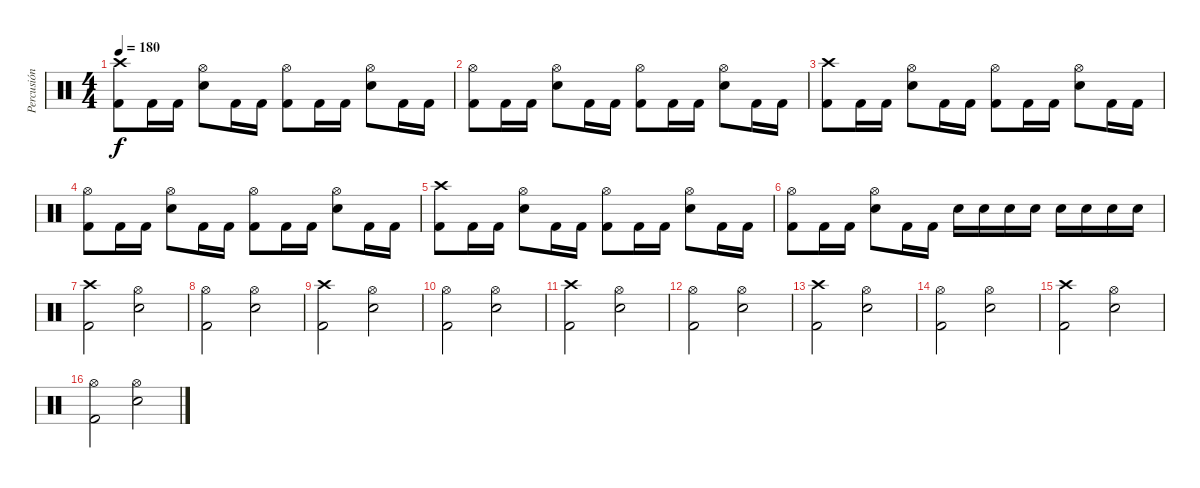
\track ("Percusión" "Percusión") {instrument percussion}
\staff {score}
\articulation defaults
\ts (4 4)
\tempo 180
\clef neutral
\ks c
("Crash high (hit)" "Kick (hit) 2").8{dy f} "Kick (hit) 2".16 "Kick (hit) 2".16 ("Hi-Hat (open)" "Electric Snare (hit)").8 "Kick (hit) 2".16 "Kick (hit) 2".16 ("Hi-Hat (open)" "Kick (hit) 2").8 "Kick (hit) 2".16 "Kick (hit) 2".16 ("Hi-Hat (open)" "Electric Snare (hit)").8 "Kick (hit) 2".16 "Kick (hit) 2".16 |
("Hi-Hat (open)" "Kick (hit) 2").8 "Kick (hit) 2".16 "Kick (hit) 2".16 ("Hi-Hat (open)" "Electric Snare (hit)").8 "Kick (hit) 2".16 "Kick (hit) 2".16 ("Hi-Hat (open)" "Kick (hit) 2").8 "Kick (hit) 2".16 "Kick (hit) 2".16 ("Hi-Hat (open)" "Electric Snare (hit)").8 "Kick (hit) 2".16 "Kick (hit) 2".16 |
("Crash high (hit)" "Kick (hit) 2").8 "Kick (hit) 2".16 "Kick (hit) 2".16 ("Hi-Hat (open)" "Electric Snare (hit)").8 "Kick (hit) 2".16 "Kick (hit) 2".16 ("Hi-Hat (open)" "Kick (hit) 2").8 "Kick (hit) 2".16 "Kick (hit) 2".16 ("Hi-Hat (open)" "Electric Snare (hit)").8 "Kick (hit) 2".16 "Kick (hit) 2".16 |
("Hi-Hat (open)" "Kick (hit) 2").8 "Kick (hit) 2".16 "Kick (hit) 2".16 ("Hi-Hat (open)" "Electric Snare (hit)").8 "Kick (hit) 2".16 "Kick (hit) 2".16 ("Hi-Hat (open)" "Kick (hit) 2").8 "Kick (hit) 2".16 "Kick (hit) 2".16 ("Hi-Hat (open)" "Electric Snare (hit)").8 "Kick (hit) 2".16 "Kick (hit) 2".16 |
("Crash high (hit)" "Kick (hit) 2").8 "Kick (hit) 2".16 "Kick (hit) 2".16 ("Hi-Hat (open)" "Electric Snare (hit)").8 "Kick (hit) 2".16 "Kick (hit) 2".16 ("Hi-Hat (open)" "Kick (hit) 2").8 "Kick (hit) 2".16 "Kick (hit) 2".16 ("Hi-Hat (open)" "Electric Snare (hit)").8 "Kick (hit) 2".16 "Kick (hit) 2".16 |
("Hi-Hat (open)" "Kick (hit) 2").8 "Kick (hit) 2".16 "Kick (hit) 2".16 ("Hi-Hat (open)" "Electric Snare (hit)").8 "Kick (hit) 2".16 "Kick (hit) 2".16 "Electric Snare (hit)".16 "Electric Snare (hit)".16 "Electric Snare (hit)".16 "Electric Snare (hit)".16 "Electric Snare (hit)".16 "Electric Snare (hit)".16 "Electric Snare (hit)".16 "Electric Snare (hit)".16 |
("Crash high (hit)" "Kick (hit) 2").2 ("Hi-Hat (open)" "Electric Snare (hit)").2 |
("Hi-Hat (open)" "Kick (hit) 2").2 ("Hi-Hat (open)" "Electric Snare (hit)").2 |
("Crash high (hit)" "Kick (hit) 2").2 ("Hi-Hat (open)" "Electric Snare (hit)").2 |
("Hi-Hat (open)" "Kick (hit) 2").2 ("Hi-Hat (open)" "Electric Snare (hit)").2 |
("Crash high (hit)" "Kick (hit) 2").2 ("Hi-Hat (open)" "Electric Snare (hit)").2 |
("Hi-Hat (open)" "Kick (hit) 2").2 ("Hi-Hat (open)" "Electric Snare (hit)").2 |
("Crash high (hit)" "Kick (hit) 2").2 ("Hi-Hat (open)" "Electric Snare (hit)").2 |
("Hi-Hat (open)" "Kick (hit) 2").2 ("Hi-Hat (open)" "Electric Snare (hit)").2 |
("Crash high (hit)" "Kick (hit) 2").2 ("Hi-Hat (open)" "Electric Snare (hit)").2 |
("Hi-Hat (open)" "Kick (hit) 2").2 ("Hi-Hat (open)" "Electric Snare (hit)").2
